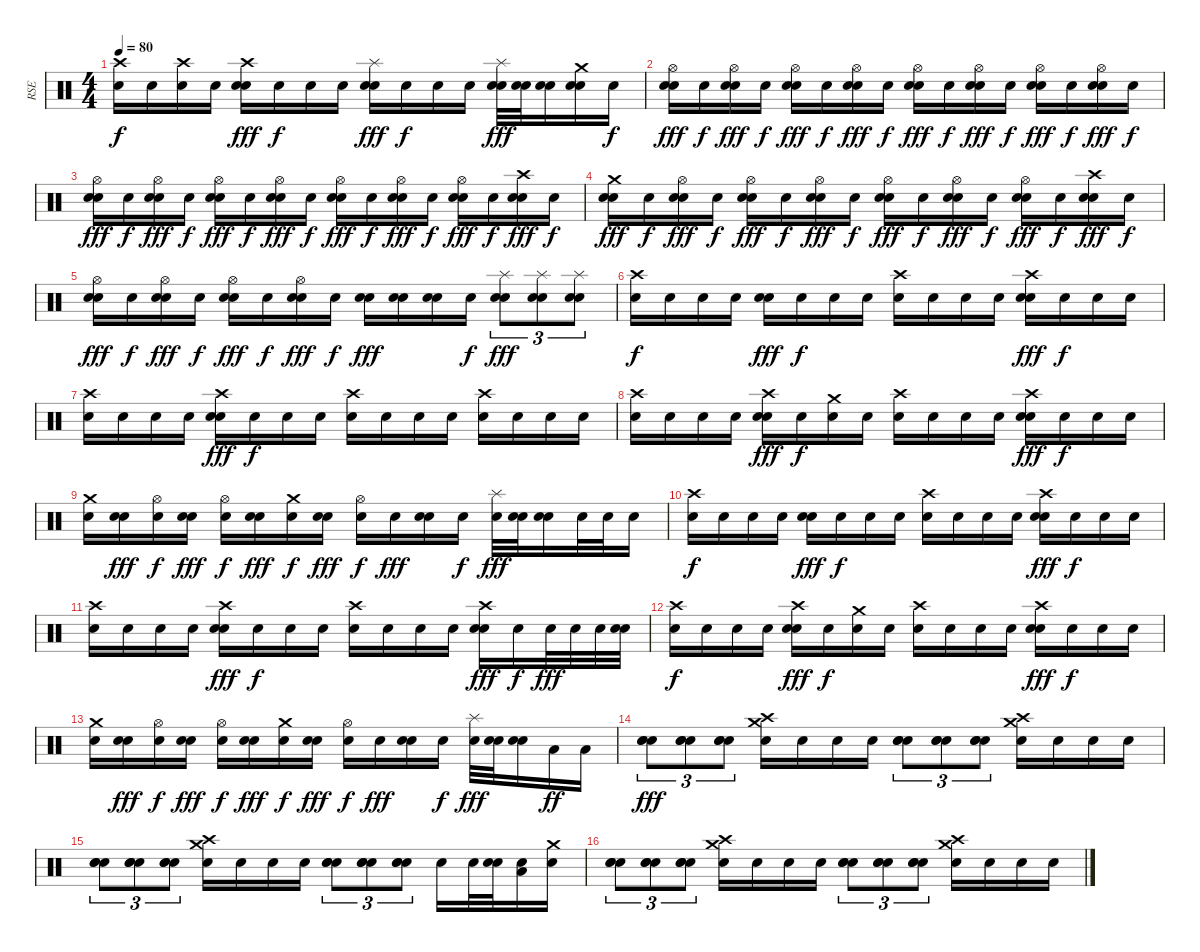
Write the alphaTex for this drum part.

\track ("RSE" "RSE") {instrument percussion}
\staff
\articulation defaults
\ts (4 4)
\tempo 80
\clef neutral
\ks c
("Crash high (hit)" "Snare (hit)").16{dy f} "Snare (hit)".16 ("Crash high (hit)" "Snare (hit)").16 "Snare (hit)".16 ("Crash high (hit)" "Electric Snare (hit)" "Snare (hit)").16{dy fff} "Snare (hit)".16{dy f} "Snare (hit)".16 "Snare (hit)".16 ("Splash (hit)" "Electric Snare (hit)" "Snare (hit)").16{dy fff} "Snare (hit)".16{dy f} "Snare (hit)".16 "Snare (hit)".16 ("Splash (hit)" "Electric Snare (hit)" "Snare (hit)").32{dy fff} ("Electric Snare (hit)" "Snare (hit)").32 ("Electric Snare (hit)" "Snare (hit)").16 ("Crash medium (hit)" "Electric Snare (hit)" "Snare (hit)").16 "Snare (hit)".16{dy f} |
("Hi-Hat (open)" "Electric Snare (hit)" "Snare (hit)").16{dy fff} "Snare (hit)".16{dy f} ("Hi-Hat (open)" "Electric Snare (hit)" "Snare (hit)").16{dy fff} "Snare (hit)".16{dy f} ("Hi-Hat (open)" "Electric Snare (hit)" "Snare (hit)").16{dy fff} "Snare (hit)".16{dy f} ("Hi-Hat (open)" "Electric Snare (hit)" "Snare (hit)").16{dy fff} "Snare (hit)".16{dy f} ("Hi-Hat (open)" "Electric Snare (hit)" "Snare (hit)").16{dy fff} "Snare (hit)".16{dy f} ("Hi-Hat (open)" "Electric Snare (hit)" "Snare (hit)").16{dy fff} "Snare (hit)".16{dy f} ("Hi-Hat (open)" "Electric Snare (hit)" "Snare (hit)").16{dy fff} "Snare (hit)".16{dy f} ("Hi-Hat (open)" "Electric Snare (hit)" "Snare (hit)").16{dy fff} "Snare (hit)".16{dy f} |
("Hi-Hat (open)" "Electric Snare (hit)" "Snare (hit)").16{dy fff} "Snare (hit)".16{dy f} ("Hi-Hat (open)" "Electric Snare (hit)" "Snare (hit)").16{dy fff} "Snare (hit)".16{dy f} ("Hi-Hat (open)" "Electric Snare (hit)" "Snare (hit)").16{dy fff} "Snare (hit)".16{dy f} ("Hi-Hat (open)" "Electric Snare (hit)" "Snare (hit)").16{dy fff} "Snare (hit)".16{dy f} ("Hi-Hat (open)" "Electric Snare (hit)" "Snare (hit)").16{dy fff} "Snare (hit)".16{dy f} ("Hi-Hat (open)" "Electric Snare (hit)" "Snare (hit)").16{dy fff} "Snare (hit)".16{dy f} ("Hi-Hat (open)" "Electric Snare (hit)" "Snare (hit)").16{dy fff} "Snare (hit)".16{dy f} ("Crash high (hit)" "Electric Snare (hit)" "Snare (hit)").16{dy fff} "Snare (hit)".16{dy f} |
("Crash medium (hit)" "Electric Snare (hit)" "Snare (hit)").16{dy fff} "Snare (hit)".16{dy f} ("Hi-Hat (open)" "Electric Snare (hit)" "Snare (hit)").16{dy fff} "Snare (hit)".16{dy f} ("Hi-Hat (open)" "Electric Snare (hit)" "Snare (hit)").16{dy fff} "Snare (hit)".16{dy f} ("Hi-Hat (open)" "Electric Snare (hit)" "Snare (hit)").16{dy fff} "Snare (hit)".16{dy f} ("Hi-Hat (open)" "Electric Snare (hit)" "Snare (hit)").16{dy fff} "Snare (hit)".16{dy f} ("Hi-Hat (open)" "Electric Snare (hit)" "Snare (hit)").16{dy fff} "Snare (hit)".16{dy f} ("Hi-Hat (open)" "Electric Snare (hit)" "Snare (hit)").16{dy fff} "Snare (hit)".16{dy f} ("Crash high (hit)" "Electric Snare (hit)" "Snare (hit)").16{dy fff} "Snare (hit)".16{dy f} |
("Hi-Hat (open)" "Electric Snare (hit)" "Snare (hit)").16{dy fff} "Snare (hit)".16{dy f} ("Hi-Hat (open)" "Electric Snare (hit)" "Snare (hit)").16{dy fff} "Snare (hit)".16{dy f} ("Hi-Hat (open)" "Electric Snare (hit)" "Snare (hit)").16{dy fff} "Snare (hit)".16{dy f} ("Hi-Hat (open)" "Electric Snare (hit)" "Snare (hit)").16{dy fff} "Snare (hit)".16{dy f} ("Electric Snare (hit)" "Snare (hit)").16{dy fff} ("Electric Snare (hit)" "Snare (hit)").16 ("Electric Snare (hit)" "Snare (hit)").16 "Snare (hit)".16{dy f} ("Splash (hit)" "Electric Snare (hit)" "Snare (hit)").8{tu (3 2) dy fff} ("Splash (hit)" "Electric Snare (hit)" "Snare (hit)").8{tu (3 2)} ("Splash (hit)" "Electric Snare (hit)" "Snare (hit)").8{tu (3 2)} |
("Crash high (hit)" "Snare (hit)").16{dy f} "Snare (hit)".16 "Snare (hit)".16 "Snare (hit)".16 ("Electric Snare (hit)" "Snare (hit)").16{dy fff} "Snare (hit)".16{dy f} "Snare (hit)".16 "Snare (hit)".16 ("Crash high (hit)" "Snare (hit)").16 "Snare (hit)".16 "Snare (hit)".16 "Snare (hit)".16 ("Crash high (hit)" "Electric Snare (hit)" "Snare (hit)").16{dy fff} "Snare (hit)".16{dy f} "Snare (hit)".16 "Snare (hit)".16 |
("Crash high (hit)" "Snare (hit)").16 "Snare (hit)".16 "Snare (hit)".16 "Snare (hit)".16 ("Crash high (hit)" "Electric Snare (hit)" "Snare (hit)").16{dy fff} "Snare (hit)".16{dy f} "Snare (hit)".16 "Snare (hit)".16 ("Crash high (hit)" "Snare (hit)").16 "Snare (hit)".16 "Snare (hit)".16 "Snare (hit)".16 ("Crash high (hit)" "Snare (hit)").16 "Snare (hit)".16 "Snare (hit)".16 "Snare (hit)".16 |
("Crash high (hit)" "Snare (hit)").16 "Snare (hit)".16 "Snare (hit)".16 "Snare (hit)".16 ("Crash high (hit)" "Electric Snare (hit)" "Snare (hit)").16{dy fff} "Snare (hit)".16{dy f} ("Crash medium (hit)" "Snare (hit)").16 "Snare (hit)".16 ("Crash high (hit)" "Snare (hit)").16 "Snare (hit)".16 "Snare (hit)".16 "Snare (hit)".16 ("Crash high (hit)" "Electric Snare (hit)" "Snare (hit)").16{dy fff} "Snare (hit)".16{dy f} "Snare (hit)".16 "Snare (hit)".16 |
("Crash medium (hit)" "Snare (hit)").16 ("Electric Snare (hit)" "Snare (hit)").16{dy fff} ("Hi-Hat (open)" "Snare (hit)").16{dy f} ("Electric Snare (hit)" "Snare (hit)").16{dy fff} ("Hi-Hat (open)" "Snare (hit)").16{dy f} ("Electric Snare (hit)" "Snare (hit)").16{dy fff} ("Crash medium (hit)" "Snare (hit)").16{dy f} ("Electric Snare (hit)" "Snare (hit)").16{dy fff} ("Hi-Hat (open)" "Snare (hit)").16{dy f} "Electric Snare (hit)".16{dy fff} ("Electric Snare (hit)" "Snare (hit)").16 "Snare (hit)".16{dy f} ("Splash (hit)" "Electric Snare (hit)").32{dy fff} ("Electric Snare (hit)" "Snare (hit)").32 ("Electric Snare (hit)" "Snare (hit)").16 "Electric Snare (hit)".32 "Electric Snare (hit)".32 "Snare (hit)".16 |
("Crash high (hit)" "Snare (hit)").16{dy f} "Snare (hit)".16 "Snare (hit)".16 "Snare (hit)".16 ("Electric Snare (hit)" "Snare (hit)").16{dy fff} "Snare (hit)".16{dy f} "Snare (hit)".16 "Snare (hit)".16 ("Crash high (hit)" "Snare (hit)").16 "Snare (hit)".16 "Snare (hit)".16 "Snare (hit)".16 ("Crash high (hit)" "Electric Snare (hit)" "Snare (hit)").16{dy fff} "Snare (hit)".16{dy f} "Snare (hit)".16 "Snare (hit)".16 |
("Crash high (hit)" "Snare (hit)").16 "Snare (hit)".16 "Snare (hit)".16 "Snare (hit)".16 ("Crash high (hit)" "Electric Snare (hit)" "Snare (hit)").16{dy fff} "Snare (hit)".16{dy f} "Snare (hit)".16 "Snare (hit)".16 ("Crash high (hit)" "Snare (hit)").16 "Snare (hit)".16 "Snare (hit)".16 "Snare (hit)".16 ("Crash high (hit)" "Electric Snare (hit)" "Snare (hit)").16{dy fff} "Snare (hit)".16{dy f} "Electric Snare (hit)".32{dy fff} "Electric Snare (hit)".32 "Electric Snare (hit)".32 ("Electric Snare (hit)" "Snare (hit)").32 |
("Crash high (hit)" "Snare (hit)").16{dy f} "Snare (hit)".16 "Snare (hit)".16 "Snare (hit)".16 ("Crash high (hit)" "Electric Snare (hit)" "Snare (hit)").16{dy fff} "Snare (hit)".16{dy f} ("Crash medium (hit)" "Snare (hit)").16 "Snare (hit)".16 ("Crash high (hit)" "Snare (hit)").16 "Snare (hit)".16 "Snare (hit)".16 "Snare (hit)".16 ("Crash high (hit)" "Electric Snare (hit)" "Snare (hit)").16{dy fff} "Snare (hit)".16{dy f} "Snare (hit)".16 "Snare (hit)".16 |
("Crash medium (hit)" "Snare (hit)").16 ("Electric Snare (hit)" "Snare (hit)").16{dy fff} ("Hi-Hat (open)" "Snare (hit)").16{dy f} ("Electric Snare (hit)" "Snare (hit)").16{dy fff} ("Hi-Hat (open)" "Snare (hit)").16{dy f} ("Electric Snare (hit)" "Snare (hit)").16{dy fff} ("Crash medium (hit)" "Snare (hit)").16{dy f} ("Electric Snare (hit)" "Snare (hit)").16{dy fff} ("Hi-Hat (open)" "Snare (hit)").16{dy f} "Electric Snare (hit)".16{dy fff} ("Electric Snare (hit)" "Snare (hit)").16 "Snare (hit)".16{dy f} ("Splash (hit)" "Electric Snare (hit)").32{dy fff} ("Electric Snare (hit)" "Snare (hit)").32 ("Electric Snare (hit)" "Snare (hit)").16 "Low Floor Tom (hit)".16{dy ff} "Low Floor Tom (hit)".16 |
("Snare (hit) 2" "Electric Snare (hit)" "Snare (hit)").8{tu (3 2) dy fff} ("Snare (hit) 2" "Electric Snare (hit)" "Snare (hit)").8{tu (3 2)} ("Snare (hit) 2" "Electric Snare (hit)" "Snare (hit)").8{tu (3 2)} ("Crash high (hit)" "Crash medium (hit)" "Snare (hit)").16 "Snare (hit)".16 "Snare (hit)".16 "Snare (hit)".16 ("Snare (hit) 2" "Electric Snare (hit)" "Snare (hit)").8{tu (3 2)} ("Snare (hit) 2" "Electric Snare (hit)" "Snare (hit)").8{tu (3 2)} ("Snare (hit) 2" "Electric Snare (hit)" "Snare (hit)").8{tu (3 2)} ("Crash high (hit)" "Crash medium (hit)" "Snare (hit)").16 "Snare (hit)".16 "Snare (hit)".16 "Snare (hit)".16 |
("Snare (hit) 2" "Electric Snare (hit)" "Snare (hit)").8{tu (3 2)} ("Snare (hit) 2" "Electric Snare (hit)" "Snare (hit)").8{tu (3 2)} ("Snare (hit) 2" "Electric Snare (hit)" "Snare (hit)").8{tu (3 2)} ("Crash high (hit)" "Crash medium (hit)" "Snare (hit)").16 "Snare (hit)".16 "Snare (hit)".16 "Snare (hit)".16 ("Snare (hit) 2" "Electric Snare (hit)" "Snare (hit)").8{tu (3 2)} ("Snare (hit) 2" "Electric Snare (hit)" "Snare (hit)").8{tu (3 2)} ("Snare (hit) 2" "Electric Snare (hit)" "Snare (hit)").8{tu (3 2)} "Snare (hit)".16 "Electric Snare (hit)".32 ("Electric Snare (hit)" "Snare (hit)").32 ("Low Tom (hit)" "Snare (hit)").16 ("Crash medium (hit)" "Snare (hit)").16 |
("Snare (hit) 2" "Electric Snare (hit)" "Snare (hit)").8{tu (3 2)} ("Snare (hit) 2" "Electric Snare (hit)" "Snare (hit)").8{tu (3 2)} ("Snare (hit) 2" "Electric Snare (hit)" "Snare (hit)").8{tu (3 2)} ("Crash high (hit)" "Crash medium (hit)" "Snare (hit)").16 "Snare (hit)".16 "Snare (hit)".16 "Snare (hit)".16 ("Snare (hit) 2" "Electric Snare (hit)" "Snare (hit)").8{tu (3 2)} ("Snare (hit) 2" "Electric Snare (hit)" "Snare (hit)").8{tu (3 2)} ("Snare (hit) 2" "Electric Snare (hit)" "Snare (hit)").8{tu (3 2)} ("Crash high (hit)" "Crash medium (hit)" "Snare (hit)").16 "Snare (hit)".16 "Snare (hit)".16 "Snare (hit)".16
